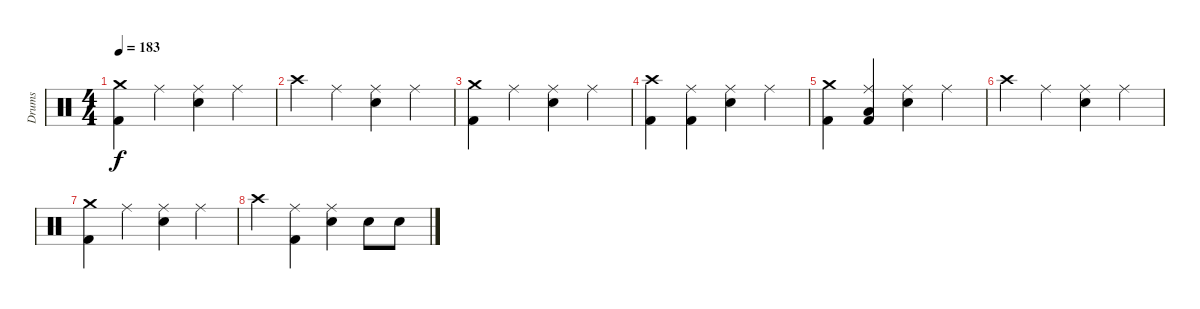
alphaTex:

\track ("Drums" "Drums") {instrument percussion}
\staff {score}
\articulation defaults
\ts (4 4)
\tempo 183
\clef neutral
\ks c
("Crash medium (hit)" "Kick (hit) 2").4{dy f volume 0} "Ride (middle)".4 ("Ride (middle)" "Electric Snare (hit)").4 "Ride (middle)".4 |
"Crash high (hit)".4 "Ride (middle)".4 ("Ride (middle)" "Electric Snare (hit)").4 "Ride (middle)".4 |
("Crash medium (hit)" "Kick (hit) 2").4 "Ride (middle)".4 ("Ride (middle)" "Electric Snare (hit)").4 "Ride (middle)".4 |
("Crash high (hit)" "Kick (hit) 2").4 ("Ride (middle)" "Kick (hit) 2").4 ("Ride (middle)" "Electric Snare (hit)").4 "Ride (middle)".4 |
("Crash medium (hit)" "Kick (hit) 2").4 ("Ride (middle)" "Low Floor Tom (hit)" "Kick (hit) 2").4 ("Ride (middle)" "Electric Snare (hit)").4 "Ride (middle)".4 |
"Crash high (hit)".4 "Ride (middle)".4 ("Ride (middle)" "Electric Snare (hit)").4 "Ride (middle)".4 |
("Crash medium (hit)" "Kick (hit) 2").4 "Ride (middle)".4 ("Ride (middle)" "Electric Snare (hit)").4 "Ride (middle)".4 |
"Crash high (hit)".4 ("Ride (middle)" "Kick (hit) 2").4 ("Ride (middle)" "Electric Snare (hit)").4 "Electric Snare (hit)".8 "Electric Snare (hit)".8
